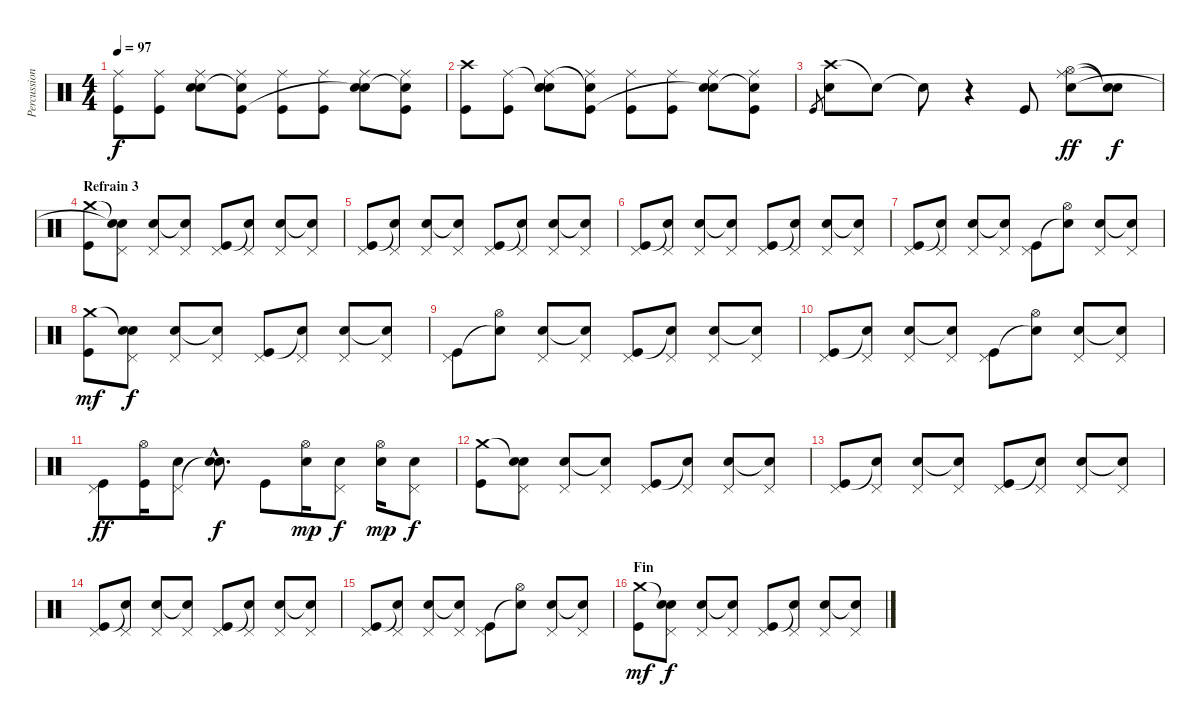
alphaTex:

\track ("Percussions" "Percussion") {instrument percussion}
\staff {score}
\articulation defaults
\ts (4 4)
\tempo 97
\clef neutral
\ks c
("Ride (middle)" "Kick (hit)").8{dy f} ("Ride (middle)" "Kick (hit)").8 ("Ride (middle)" "Snare (hit) 2" "Snare (hit)"{t}).8 ("Ride (middle)" "Snare (hit)"{t} "Kick (hit)").8 ("Ride (middle)" "Kick (hit)").8 ("Ride (middle)" "Kick (hit)").8 ("Ride (middle)" "Snare (hit) 2" "Snare (hit)"{t}).8 ("Ride (middle)" "Snare (hit)"{t} "Kick (hit)").8 |
("Crash high (hit)" "Kick (hit)").8 ("Ride (middle)" "Kick (hit)").8 ("Snare (hit)"{t} "Ride (middle)" "Snare (hit) 2" "Snare (hit)").8 ("Ride (middle)" "Snare (hit)"{t} "Kick (hit)").8 ("Ride (middle)" "Kick (hit)").8 ("Ride (middle)" "Kick (hit)").8 ("Ride (middle)" "Snare (hit) 2" "Snare (hit)"{t}).8 ("Ride (middle)" "Snare (hit)"{t} "Kick (hit)").8 |
"Kick (hit)".8{gr} ("Crash high (hit)" "Snare (hit) 2").8 "Snare (hit)"{t}.8 "Snare (hit)"{t}.8 r.4 "Kick (hit)".8 ("Ride (middle)" "Hi-Hat (open)" "Snare (hit) 2").8{dy ff} ("Snare (hit)"{t} "Snare (hit)"{t}).8{dy f} |
\section ("" "Refrain 3")
("Crash medium (hit)" "Kick (hit)").8 ("Snare (hit)"{t} "Pedal Hi-Hat (hit)" "Snare (hit)"{t}).8 ("Pedal Hi-Hat (hit)" "Snare (hit) 2").8 ("Pedal Hi-Hat (hit)" "Snare (hit)"{t}).8 ("Pedal Hi-Hat (hit)" "Kick (hit)").8 ("Pedal Hi-Hat (hit)" "Snare (hit)"{t}).8 ("Pedal Hi-Hat (hit)" "Snare (hit) 2").8 ("Pedal Hi-Hat (hit)" "Snare (hit)"{t}).8 |
("Pedal Hi-Hat (hit)" "Kick (hit)").8 ("Pedal Hi-Hat (hit)" "Snare (hit)"{t}).8 ("Pedal Hi-Hat (hit)" "Snare (hit) 2").8 ("Pedal Hi-Hat (hit)" "Snare (hit)"{t}).8 ("Pedal Hi-Hat (hit)" "Kick (hit)").8 ("Pedal Hi-Hat (hit)" "Snare (hit)"{t}).8 ("Pedal Hi-Hat (hit)" "Snare (hit) 2").8 ("Pedal Hi-Hat (hit)" "Snare (hit)"{t}).8 |
("Pedal Hi-Hat (hit)" "Kick (hit)").8 ("Pedal Hi-Hat (hit)" "Snare (hit)"{t}).8 ("Pedal Hi-Hat (hit)" "Snare (hit) 2").8 ("Pedal Hi-Hat (hit)" "Snare (hit)"{t}).8 ("Pedal Hi-Hat (hit)" "Kick (hit)").8 ("Pedal Hi-Hat (hit)" "Snare (hit)"{t}).8 ("Pedal Hi-Hat (hit)" "Snare (hit) 2").8 ("Pedal Hi-Hat (hit)" "Snare (hit)"{t}).8 |
("Pedal Hi-Hat (hit)" "Kick (hit)").8 ("Pedal Hi-Hat (hit)" "Snare (hit)"{t}).8 ("Pedal Hi-Hat (hit)" "Snare (hit) 2").8 ("Pedal Hi-Hat (hit)" "Snare (hit)"{t}).8 ("Pedal Hi-Hat (hit)" "Kick (hit)").8 ("Hi-Hat (open)" "Snare (hit)"{t}).8 ("Pedal Hi-Hat (hit)" "Snare (hit) 2").8 ("Pedal Hi-Hat (hit)" "Snare (hit)"{t}).8 |
("Crash medium (hit)" "Kick (hit)").8{dy mf} ("Snare (hit)"{t} "Pedal Hi-Hat (hit)" "Snare (hit)").8{dy f} ("Pedal Hi-Hat (hit)" "Snare (hit) 2").8 ("Pedal Hi-Hat (hit)" "Snare (hit)"{t}).8 ("Pedal Hi-Hat (hit)" "Kick (hit)").8 ("Pedal Hi-Hat (hit)" "Snare (hit)"{t}).8 ("Pedal Hi-Hat (hit)" "Snare (hit) 2").8 ("Pedal Hi-Hat (hit)" "Snare (hit)"{t}).8 |
("Pedal Hi-Hat (hit)" "Kick (hit)").8 ("Hi-Hat (open)" "Snare (hit)"{t}).8 ("Pedal Hi-Hat (hit)" "Snare (hit) 2").8 ("Pedal Hi-Hat (hit)" "Snare (hit)"{t}).8 ("Pedal Hi-Hat (hit)" "Kick (hit)").8 ("Pedal Hi-Hat (hit)" "Snare (hit)"{t}).8 ("Pedal Hi-Hat (hit)" "Snare (hit) 2").8 ("Pedal Hi-Hat (hit)" "Snare (hit)"{t}).8 |
("Pedal Hi-Hat (hit)" "Kick (hit)").8 ("Pedal Hi-Hat (hit)" "Snare (hit)"{t}).8 ("Pedal Hi-Hat (hit)" "Snare (hit) 2").8 ("Pedal Hi-Hat (hit)" "Snare (hit)"{t}).8 ("Pedal Hi-Hat (hit)" "Kick (hit)").8 ("Hi-Hat (open)" "Snare (hit)"{t}).8 ("Pedal Hi-Hat (hit)" "Snare (hit) 2").8 ("Pedal Hi-Hat (hit)" "Snare (hit)"{t}).8 |
("Pedal Hi-Hat (hit)" "Kick (hit)").8{dy ff} ("Hi-Hat (open)" "Kick (hit)").16 ("Pedal Hi-Hat (hit)" "Snare (hit) 2").8 ("Snare (hit)"{hac t} "Snare (hit) 2"{hac}).8{d dy f} "Kick (hit)".8 ("Hi-Hat (open)" "Snare (hit) 2").16{dy mp} ("Pedal Hi-Hat (hit)" "Snare (hit) 2").8{dy f} ("Hi-Hat (open)" "Snare (hit) 2").16{dy mp} ("Pedal Hi-Hat (hit)" "Snare (hit) 2").8{dy f} |
("Crash medium (hit)" "Kick (hit)").8 ("Snare (hit)"{t} "Pedal Hi-Hat (hit)" "Snare (hit)").8 ("Pedal Hi-Hat (hit)" "Snare (hit) 2").8 ("Pedal Hi-Hat (hit)" "Snare (hit)"{t}).8 ("Pedal Hi-Hat (hit)" "Kick (hit)").8 ("Pedal Hi-Hat (hit)" "Snare (hit)"{t}).8 ("Pedal Hi-Hat (hit)" "Snare (hit) 2").8 ("Pedal Hi-Hat (hit)" "Snare (hit)"{t}).8 |
("Pedal Hi-Hat (hit)" "Kick (hit)").8 ("Pedal Hi-Hat (hit)" "Snare (hit)"{t}).8 ("Pedal Hi-Hat (hit)" "Snare (hit) 2").8 ("Pedal Hi-Hat (hit)" "Snare (hit)"{t}).8 ("Pedal Hi-Hat (hit)" "Kick (hit)").8 ("Pedal Hi-Hat (hit)" "Snare (hit)"{t}).8 ("Pedal Hi-Hat (hit)" "Snare (hit) 2").8 ("Pedal Hi-Hat (hit)" "Snare (hit)"{t}).8 |
("Pedal Hi-Hat (hit)" "Kick (hit)").8 ("Pedal Hi-Hat (hit)" "Snare (hit)"{t}).8 ("Pedal Hi-Hat (hit)" "Snare (hit) 2").8 ("Pedal Hi-Hat (hit)" "Snare (hit)"{t}).8 ("Pedal Hi-Hat (hit)" "Kick (hit)").8 ("Pedal Hi-Hat (hit)" "Snare (hit)"{t}).8 ("Pedal Hi-Hat (hit)" "Snare (hit) 2").8 ("Pedal Hi-Hat (hit)" "Snare (hit)"{t}).8 |
("Pedal Hi-Hat (hit)" "Kick (hit)").8 ("Pedal Hi-Hat (hit)" "Snare (hit)"{t}).8 ("Pedal Hi-Hat (hit)" "Snare (hit) 2").8 ("Pedal Hi-Hat (hit)" "Snare (hit)"{t}).8 ("Pedal Hi-Hat (hit)" "Kick (hit)").8 ("Hi-Hat (open)" "Snare (hit)"{t}).8 ("Pedal Hi-Hat (hit)" "Snare (hit) 2").8 ("Pedal Hi-Hat (hit)" "Snare (hit)"{t}).8 |
\section ("" "Fin")
("Crash medium (hit)" "Kick (hit)").8{dy mf} ("Snare (hit)"{t} "Pedal Hi-Hat (hit)" "Snare (hit)").8{dy f} ("Pedal Hi-Hat (hit)" "Snare (hit) 2").8 ("Pedal Hi-Hat (hit)" "Snare (hit)"{t}).8 ("Pedal Hi-Hat (hit)" "Kick (hit)").8 ("Pedal Hi-Hat (hit)" "Snare (hit)"{t}).8 ("Pedal Hi-Hat (hit)" "Snare (hit) 2").8 ("Pedal Hi-Hat (hit)" "Snare (hit)"{t}).8
